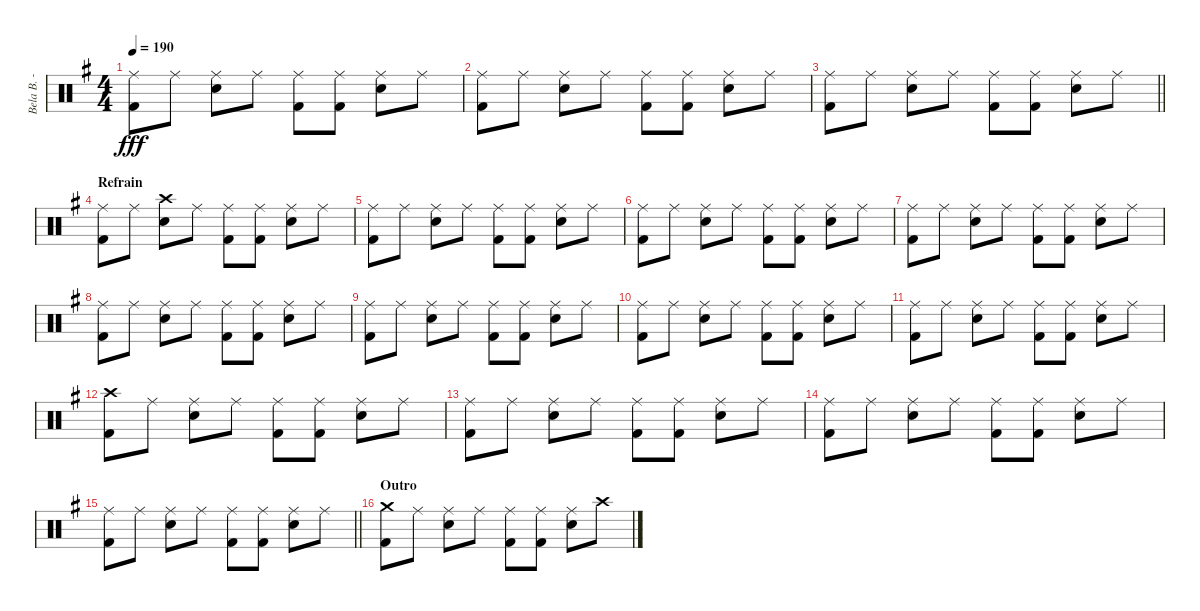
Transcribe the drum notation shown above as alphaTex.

\track ("Bela B. - Drums" "Bela B. - ") {instrument percussion}
\staff {score}
\articulation defaults
\ts (4 4)
\tempo 190
\clef neutral
\ks g
("Ride (middle)" "Kick (hit) 2").8{dy fff} "Ride (middle)".8 ("Ride (middle)" "Snare (hit) 2").8 "Ride (middle)".8 ("Ride (middle)" "Kick (hit) 2").8 ("Ride (middle)" "Kick (hit) 2").8 ("Ride (middle)" "Snare (hit) 2").8 "Ride (middle)".8 |
("Ride (middle)" "Kick (hit) 2").8 "Ride (middle)".8 ("Ride (middle)" "Snare (hit) 2").8 "Ride (middle)".8 ("Ride (middle)" "Kick (hit) 2").8 ("Ride (middle)" "Kick (hit) 2").8 ("Ride (middle)" "Snare (hit) 2").8 "Ride (middle)".8 |
\barLineRight lightlight
("Ride (middle)" "Kick (hit) 2").8 "Ride (middle)".8 ("Ride (middle)" "Snare (hit) 2").8 "Ride (middle)".8 ("Ride (middle)" "Kick (hit) 2").8 ("Ride (middle)" "Kick (hit) 2").8 ("Ride (middle)" "Snare (hit) 2").8 "Ride (middle)".8 |
\section ("" "Refrain")
("Ride (middle)" "Kick (hit) 2").8 "Ride (middle)".8 ("Crash high (hit)" "Snare (hit) 2").8 "Ride (middle)".8 ("Ride (middle)" "Kick (hit) 2").8 ("Ride (middle)" "Kick (hit) 2").8 ("Ride (middle)" "Snare (hit) 2").8 "Ride (middle)".8 |
("Ride (middle)" "Kick (hit) 2").8 "Ride (middle)".8 ("Ride (middle)" "Snare (hit) 2").8 "Ride (middle)".8 ("Ride (middle)" "Kick (hit) 2").8 ("Ride (middle)" "Kick (hit) 2").8 ("Ride (middle)" "Snare (hit) 2").8 "Ride (middle)".8 |
("Ride (middle)" "Kick (hit) 2").8 "Ride (middle)".8 ("Ride (middle)" "Snare (hit) 2").8 "Ride (middle)".8 ("Ride (middle)" "Kick (hit) 2").8 ("Ride (middle)" "Kick (hit) 2").8 ("Ride (middle)" "Snare (hit) 2").8 "Ride (middle)".8 |
("Ride (middle)" "Kick (hit) 2").8 "Ride (middle)".8 ("Ride (middle)" "Snare (hit) 2").8 "Ride (middle)".8 ("Ride (middle)" "Kick (hit) 2").8 ("Ride (middle)" "Kick (hit) 2").8 ("Ride (middle)" "Snare (hit) 2").8 "Ride (middle)".8 |
("Ride (middle)" "Kick (hit) 2").8 "Ride (middle)".8 ("Ride (middle)" "Snare (hit) 2").8 "Ride (middle)".8 ("Ride (middle)" "Kick (hit) 2").8 ("Ride (middle)" "Kick (hit) 2").8 ("Ride (middle)" "Snare (hit) 2").8 "Ride (middle)".8 |
("Ride (middle)" "Kick (hit) 2").8 "Ride (middle)".8 ("Ride (middle)" "Snare (hit) 2").8 "Ride (middle)".8 ("Ride (middle)" "Kick (hit) 2").8 ("Ride (middle)" "Kick (hit) 2").8 ("Ride (middle)" "Snare (hit) 2").8 "Ride (middle)".8 |
("Ride (middle)" "Kick (hit) 2").8 "Ride (middle)".8 ("Ride (middle)" "Snare (hit) 2").8 "Ride (middle)".8 ("Ride (middle)" "Kick (hit) 2").8 ("Ride (middle)" "Kick (hit) 2").8 ("Ride (middle)" "Snare (hit) 2").8 "Ride (middle)".8 |
("Ride (middle)" "Kick (hit) 2").8 "Ride (middle)".8 ("Ride (middle)" "Snare (hit) 2").8 "Ride (middle)".8 ("Ride (middle)" "Kick (hit) 2").8 ("Ride (middle)" "Kick (hit) 2").8 ("Ride (middle)" "Snare (hit) 2").8 "Ride (middle)".8 |
("Crash high (hit)" "Kick (hit) 2").8 "Ride (middle)".8 ("Ride (middle)" "Snare (hit) 2").8 "Ride (middle)".8 ("Ride (middle)" "Kick (hit) 2").8 ("Ride (middle)" "Kick (hit) 2").8 ("Ride (middle)" "Snare (hit) 2").8 "Ride (middle)".8 |
("Ride (middle)" "Kick (hit) 2").8 "Ride (middle)".8 ("Ride (middle)" "Snare (hit) 2").8 "Ride (middle)".8 ("Ride (middle)" "Kick (hit) 2").8 ("Ride (middle)" "Kick (hit) 2").8 ("Ride (middle)" "Snare (hit) 2").8 "Ride (middle)".8 |
("Ride (middle)" "Kick (hit) 2").8 "Ride (middle)".8 ("Ride (middle)" "Snare (hit) 2").8 "Ride (middle)".8 ("Ride (middle)" "Kick (hit) 2").8 ("Ride (middle)" "Kick (hit) 2").8 ("Ride (middle)" "Snare (hit) 2").8 "Ride (middle)".8 |
\barLineRight lightlight
("Ride (middle)" "Kick (hit) 2").8 "Ride (middle)".8 ("Ride (middle)" "Snare (hit) 2").8 "Ride (middle)".8 ("Ride (middle)" "Kick (hit) 2").8 ("Ride (middle)" "Kick (hit) 2").8 ("Ride (middle)" "Snare (hit) 2").8 "Ride (middle)".8 |
\section ("" "Outro")
("Crash medium (hit)" "Kick (hit) 2").8 "Ride (middle)".8 ("Ride (middle)" "Snare (hit) 2").8 "Ride (middle)".8 ("Ride (middle)" "Kick (hit) 2").8 ("Ride (middle)" "Kick (hit) 2").8 ("Ride (middle)" "Snare (hit) 2").8 "Crash high (hit)".8
